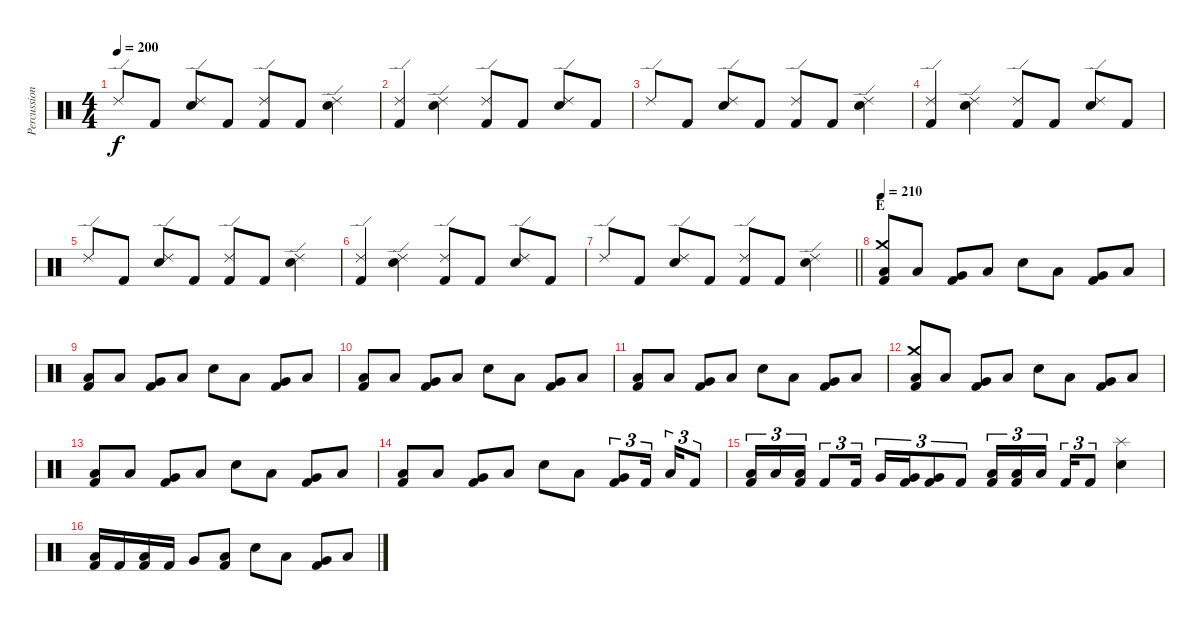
\track ("Percussion" "Percussion") {instrument percussion}
\staff {score}
\articulation defaults
\ts (4 4)
\tempo 200
\clef neutral
\ks c "Ride (edge) 2".8{dy f} "Kick (hit) 2".8
("Ride (edge) 2" "Electric Snare (hit)").8 "Kick (hit) 2".8 ("Ride (edge) 2" "Kick (hit) 2").8 "Kick (hit) 2".8 ("Ride (edge) 2" "Electric Snare (hit)").4 |
("Ride (edge) 2" "Kick (hit) 2").4 ("Ride (edge) 2" "Electric Snare (hit)").4 ("Ride (edge) 2" "Kick (hit) 2").8 "Kick (hit) 2".8 ("Ride (edge) 2" "Electric Snare (hit)").8 "Kick (hit) 2".8 |
"Ride (edge) 2".8 "Kick (hit) 2".8 ("Ride (edge) 2" "Electric Snare (hit)").8 "Kick (hit) 2".8 ("Ride (edge) 2" "Kick (hit) 2").8 "Kick (hit) 2".8 ("Ride (edge) 2" "Electric Snare (hit)").4 |
("Ride (edge) 2" "Kick (hit) 2").4 ("Ride (edge) 2" "Electric Snare (hit)").4 ("Ride (edge) 2" "Kick (hit) 2").8 "Kick (hit) 2".8 ("Ride (edge) 2" "Electric Snare (hit)").8 "Kick (hit) 2".8 |
"Ride (edge) 2".8 "Kick (hit) 2".8 ("Ride (edge) 2" "Electric Snare (hit)").8 "Kick (hit) 2".8 ("Ride (edge) 2" "Kick (hit) 2").8 "Kick (hit) 2".8 ("Ride (edge) 2" "Electric Snare (hit)").4 |
("Ride (edge) 2" "Kick (hit) 2").4 ("Ride (edge) 2" "Electric Snare (hit)").4 ("Ride (edge) 2" "Kick (hit) 2").8 "Kick (hit) 2".8 ("Ride (edge) 2" "Electric Snare (hit)").8 "Kick (hit) 2".8 |
\barLineRight lightlight "Ride (edge) 2".8 "Kick (hit) 2".8
("Ride (edge) 2" "Electric Snare (hit)").8 "Kick (hit) 2".8 ("Ride (edge) 2" "Kick (hit) 2").8 "Kick (hit) 2".8 ("Ride (edge) 2" "Electric Snare (hit)").4 |
\section ("" "E")
\tempo 210
("Crash medium (hit)" "Low Tom (hit)" "Kick (hit) 2").8 "Low Floor Tom (hit)".8 ("Very Low Tom (hit)" "Kick (hit) 2").8 "Low Floor Tom (hit)".8 "Electric Snare (hit)".8 "Low Floor Tom (hit)".8 ("Very Low Tom (hit)" "Kick (hit) 2").8 "Low Floor Tom (hit)".8 |
("Low Tom (hit)" "Kick (hit) 2").8 "Low Floor Tom (hit)".8 ("Very Low Tom (hit)" "Kick (hit) 2").8 "Low Floor Tom (hit)".8 "Electric Snare (hit)".8 "Low Floor Tom (hit)".8 ("Very Low Tom (hit)" "Kick (hit) 2").8 "Low Floor Tom (hit)".8 |
("Low Tom (hit)" "Kick (hit) 2").8 "Low Floor Tom (hit)".8 ("Very Low Tom (hit)" "Kick (hit) 2").8 "Low Floor Tom (hit)".8 "Electric Snare (hit)".8 "Low Floor Tom (hit)".8 ("Very Low Tom (hit)" "Kick (hit) 2").8 "Low Floor Tom (hit)".8 |
("Low Tom (hit)" "Kick (hit) 2").8 "Low Floor Tom (hit)".8 ("Very Low Tom (hit)" "Kick (hit) 2").8 "Low Floor Tom (hit)".8 "Electric Snare (hit)".8 "Low Floor Tom (hit)".8 ("Very Low Tom (hit)" "Kick (hit) 2").8 "Low Floor Tom (hit)".8 |
("Crash medium (hit)" "Low Tom (hit)" "Kick (hit) 2").8 "Low Floor Tom (hit)".8 ("Very Low Tom (hit)" "Kick (hit) 2").8 "Low Floor Tom (hit)".8 "Electric Snare (hit)".8 "Low Floor Tom (hit)".8 ("Very Low Tom (hit)" "Kick (hit) 2").8 "Low Floor Tom (hit)".8 |
("Low Tom (hit)" "Kick (hit) 2").8 "Low Floor Tom (hit)".8 ("Very Low Tom (hit)" "Kick (hit) 2").8 "Low Floor Tom (hit)".8 "Electric Snare (hit)".8 "Low Floor Tom (hit)".8 ("Very Low Tom (hit)" "Kick (hit) 2").8 "Low Floor Tom (hit)".8 |
("Low Tom (hit)" "Kick (hit) 2").8 "Low Floor Tom (hit)".8 ("Very Low Tom (hit)" "Kick (hit) 2").8 "Low Floor Tom (hit)".8 "Electric Snare (hit)".8 "Low Floor Tom (hit)".8 ("Very Low Tom (hit)" "Kick (hit) 2").8{tu (3 2)} "Kick (hit) 2".16{tu (3 2) beam splitsecondary} "Low Floor Tom (hit)".16{tu (3 2)} "Kick (hit) 2".8{tu (3 2)} |
("Low Tom (hit)" "Kick (hit) 2").16{tu (3 2)} "Low Tom (hit)".16{tu (3 2)} ("Low Tom (hit)" "Kick (hit) 2").16{tu (3 2)} "Kick (hit) 2".8{tu (3 2)} "Kick (hit) 2".16{tu (3 2)} "Very Low Tom (hit)".16{tu (3 2)} ("Very Low Tom (hit)" "Kick (hit) 2").16{tu (3 2)} ("Very Low Tom (hit)" "Kick (hit) 2").8{tu (3 2)} "Kick (hit) 2".8{tu (3 2)} ("Low Floor Tom (hit)" "Kick (hit) 2").16{tu (3 2)} ("Low Floor Tom (hit)" "Kick (hit) 2").16{tu (3 2)} "Low Floor Tom (hit)".16{tu (3 2) beam splitsecondary} "Kick (hit) 2".16{tu (3 2)} "Kick (hit) 2".8{tu (3 2)} ("Splash (hit)" "Electric Snare (hit)").4 |
("Low Tom (hit)" "Kick (hit) 2").16 "Kick (hit) 2".16 ("Low Floor Tom (hit)" "Kick (hit) 2").16 "Kick (hit) 2".16 "Very Low Tom (hit)".8 ("Low Floor Tom (hit)" "Kick (hit) 2").8 "Electric Snare (hit)".8 "Low Floor Tom (hit)".8 ("Very Low Tom (hit)" "Kick (hit) 2").8 "Low Floor Tom (hit)".8
